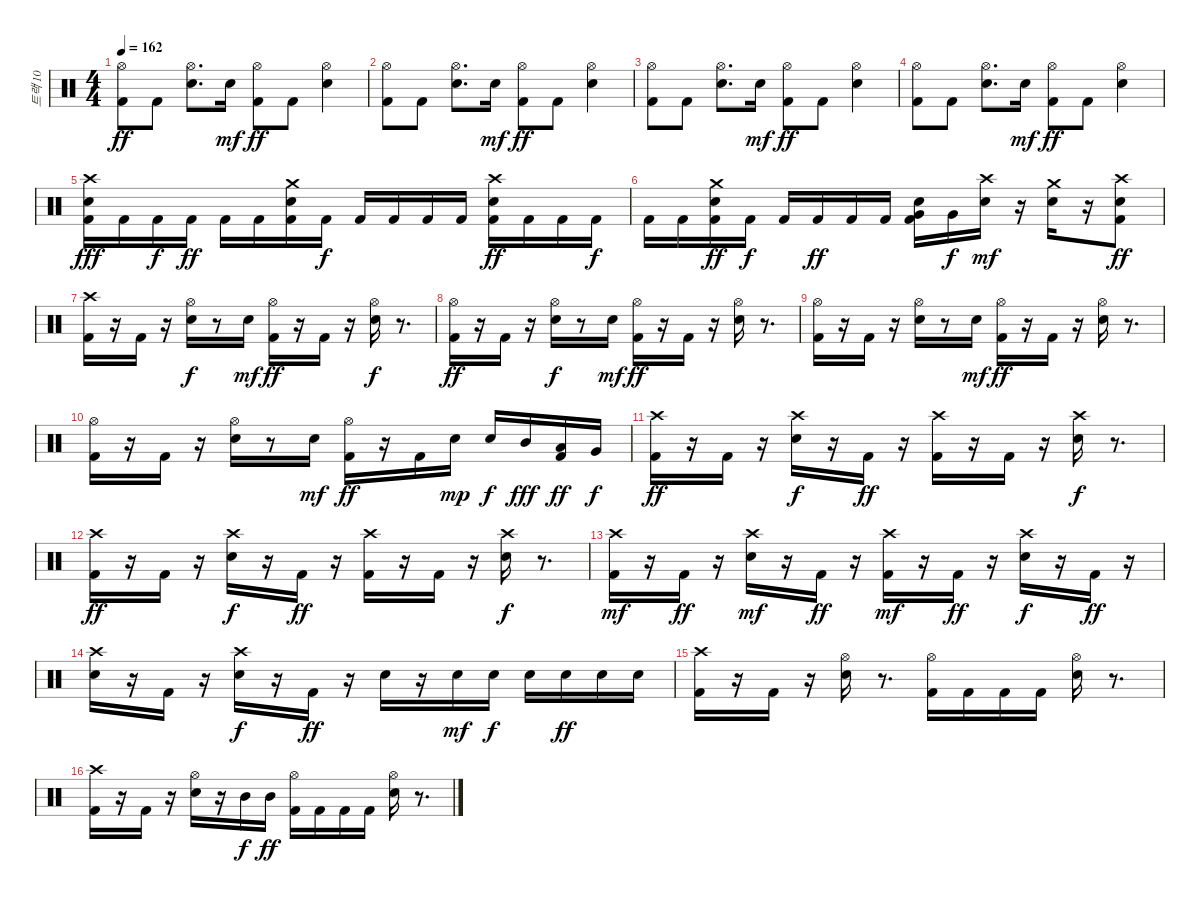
\track ("트랙 10" "트랙 10") {instrument percussion}
\staff {score}
\articulation defaults
\ts (4 4)
\tempo 162
\clef neutral
\ks c
("Hi-Hat (open)" "Kick (hit) 2").8{dy ff} "Kick (hit) 2".8 ("Hi-Hat (open)" "Electric Snare (hit)").8{d} "Electric Snare (hit)".16{dy mf} ("Hi-Hat (open)" "Kick (hit) 2").8{dy ff} "Kick (hit) 2".8 ("Hi-Hat (open)" "Electric Snare (hit)").4 |
("Hi-Hat (open)" "Kick (hit) 2").8 "Kick (hit) 2".8 ("Hi-Hat (open)" "Electric Snare (hit)").8{d} "Electric Snare (hit)".16{dy mf} ("Hi-Hat (open)" "Kick (hit) 2").8{dy ff} "Kick (hit) 2".8 ("Hi-Hat (open)" "Electric Snare (hit)").4 |
("Hi-Hat (open)" "Kick (hit) 2").8 "Kick (hit) 2".8 ("Hi-Hat (open)" "Electric Snare (hit)").8{d} "Electric Snare (hit)".16{dy mf} ("Hi-Hat (open)" "Kick (hit) 2").8{dy ff} "Kick (hit) 2".8 ("Hi-Hat (open)" "Electric Snare (hit)").4 |
("Hi-Hat (open)" "Kick (hit) 2").8 "Kick (hit) 2".8 ("Hi-Hat (open)" "Electric Snare (hit)").8{d} "Electric Snare (hit)".16{dy mf} ("Hi-Hat (open)" "Kick (hit) 2").8{dy ff} "Kick (hit) 2".8 ("Hi-Hat (open)" "Electric Snare (hit)").4 |
("Kick (hit) 2" "Crash high (hit)" "Electric Snare (hit)").16{dy fff} "Kick (hit) 2".16 "Kick (hit) 2".16{dy f} "Kick (hit) 2".16{dy ff} "Kick (hit) 2".16 "Kick (hit) 2".16 ("Kick (hit) 2" "Crash medium (hit)" "Electric Snare (hit)").16 "Kick (hit) 2".16{dy f} "Kick (hit) 2".16 "Kick (hit) 2".16 "Kick (hit) 2".16 "Kick (hit) 2".16 ("Kick (hit) 2" "Crash high (hit)" "Electric Snare (hit)").16{dy ff} "Kick (hit) 2".16 "Kick (hit) 2".16 "Kick (hit) 2".16{dy f} |
"Kick (hit) 2".16 "Kick (hit) 2".16 ("Kick (hit) 2" "Crash medium (hit)" "Electric Snare (hit)").16{dy ff} "Kick (hit) 2".16{dy f} "Kick (hit) 2".16 "Kick (hit) 2".16{dy ff} "Kick (hit) 2".16 "Kick (hit) 2".16 ("Kick (hit) 2" "Electric Snare (hit)" "Very Low Tom (hit)").16 "Very Low Tom (hit)".16{dy f} ("Crash high (hit)" "Electric Snare (hit)").16{dy mf} r.16 ("Crash medium (hit)" "Electric Snare (hit)").16 r.16 ("Kick (hit) 2" "Crash high (hit)" "Electric Snare (hit)").8{dy ff} |
("Kick (hit) 2" "Crash high (hit)").16 r.16 "Kick (hit) 2".16 r.16 ("Hi-Hat (open)" "Electric Snare (hit)").16{dy f} r.8 "Electric Snare (hit)".16{dy mf} ("Hi-Hat (open)" "Kick (hit) 2").16{dy ff} r.16 "Kick (hit) 2".16 r.16 ("Hi-Hat (open)" "Electric Snare (hit)").16{dy f} r.8{d} |
("Hi-Hat (open)" "Kick (hit) 2").16{dy ff} r.16 "Kick (hit) 2".16 r.16 ("Hi-Hat (open)" "Electric Snare (hit)").16{dy f} r.8 "Electric Snare (hit)".16{dy mf} ("Hi-Hat (open)" "Kick (hit) 2").16{dy ff} r.16 "Kick (hit) 2".16 r.16 ("Hi-Hat (open)" "Electric Snare (hit)").16 r.8{d} |
("Hi-Hat (open)" "Kick (hit) 2").16 r.16 "Kick (hit) 2".16 r.16 ("Hi-Hat (open)" "Electric Snare (hit)").16 r.8 "Electric Snare (hit)".16{dy mf} ("Hi-Hat (open)" "Kick (hit) 2").16{dy ff} r.16 "Kick (hit) 2".16 r.16 ("Hi-Hat (open)" "Electric Snare (hit)").16 r.8{d} |
("Hi-Hat (open)" "Kick (hit) 2").16 r.16 "Kick (hit) 2".16 r.16 ("Hi-Hat (open)" "Electric Snare (hit)").16 r.8 "Electric Snare (hit)".16{dy mf} ("Hi-Hat (open)" "Kick (hit) 2").16{dy ff} r.16 "Kick (hit) 2".16 "Electric Snare (hit)".16{dy mp} "Electric Snare (hit)".16{dy f} "Mid Tom (hit)".16{dy fff} ("Kick (hit) 2" "Low Tom (hit)").16{dy ff} "Very Low Tom (hit)".16{dy f} |
("Kick (hit) 2" "Crash high (hit)").16{dy ff} r.16 "Kick (hit) 2".16 r.16 ("Crash high (hit)" "Electric Snare (hit)").16{dy f} r.16 "Kick (hit) 2".16{dy ff} r.16 ("Kick (hit) 2" "Crash high (hit)").16 r.16 "Kick (hit) 2".16 r.16 ("Crash high (hit)" "Electric Snare (hit)").16{dy f} r.8{d} |
("Kick (hit) 2" "Crash high (hit)").16{dy ff} r.16 "Kick (hit) 2".16 r.16 ("Crash high (hit)" "Electric Snare (hit)").16{dy f} r.16 "Kick (hit) 2".16{dy ff} r.16 ("Kick (hit) 2" "Crash high (hit)").16 r.16 "Kick (hit) 2".16 r.16 ("Crash high (hit)" "Electric Snare (hit)").16{dy f} r.8{d} |
("Kick (hit) 2" "Crash high (hit)").16{dy mf} r.16 "Kick (hit) 2".16{dy ff} r.16 ("Crash high (hit)" "Electric Snare (hit)").16{dy mf} r.16 "Kick (hit) 2".16{dy ff} r.16 ("Kick (hit) 2" "Crash high (hit)").16{dy mf} r.16 "Kick (hit) 2".16{dy ff} r.16 ("Crash high (hit)" "Electric Snare (hit)").16{dy f} r.16 "Kick (hit) 2".16{dy ff} r.16 |
("Crash high (hit)" "Electric Snare (hit)").16 r.16 "Kick (hit) 2".16 r.16 ("Crash high (hit)" "Electric Snare (hit)").16{dy f} r.16 "Kick (hit) 2".16{dy ff} r.16 "Electric Snare (hit)".16 r.16 "Electric Snare (hit)".16{dy mf} "Electric Snare (hit)".16{dy f} "Electric Snare (hit)".16 "Electric Snare (hit)".16{dy ff} "Electric Snare (hit)".16 "Electric Snare (hit)".16 |
("Kick (hit) 2" "Crash high (hit)").16 r.16 "Kick (hit) 2".16 r.16 ("Hi-Hat (open)" "Electric Snare (hit)").16 r.8{d} ("Hi-Hat (open)" "Kick (hit) 2").16 "Kick (hit) 2".16 "Kick (hit) 2".16 "Kick (hit) 2".16 ("Hi-Hat (open)" "Electric Snare (hit)").16 r.8{d} |
("Kick (hit) 2" "Crash high (hit)").16 r.16 "Kick (hit) 2".16 r.16 ("Hi-Hat (open)" "Electric Snare (hit)").16 r.16 "Mid Tom (hit)".16{dy f} "Mid Tom (hit)".16{dy ff} ("Hi-Hat (open)" "Kick (hit) 2").16 "Kick (hit) 2".16 "Kick (hit) 2".16 "Kick (hit) 2".16 ("Hi-Hat (open)" "Electric Snare (hit)").16 r.8{d}
